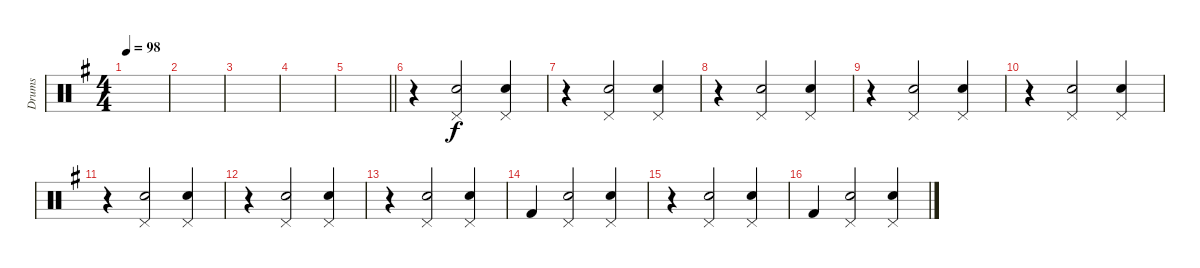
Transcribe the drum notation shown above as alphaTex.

\track ("Drums" "Drums") {instrument percussion}
\staff {score}
\articulation defaults
\ts (4 4)
\tempo 98
\clef neutral
\ks g
|
|
|
|
\barLineRight lightlight
|
r.4 ("Pedal Hi-Hat (hit)" "Hand Clap (hit)").2 ("Pedal Hi-Hat (hit)" "Hand Clap (hit)").4 |
r.4 ("Pedal Hi-Hat (hit)" "Hand Clap (hit)").2 ("Pedal Hi-Hat (hit)" "Hand Clap (hit)").4 |
r.4 ("Pedal Hi-Hat (hit)" "Hand Clap (hit)").2 ("Pedal Hi-Hat (hit)" "Hand Clap (hit)").4 |
r.4 ("Pedal Hi-Hat (hit)" "Hand Clap (hit)").2 ("Pedal Hi-Hat (hit)" "Hand Clap (hit)").4 |
r.4 ("Pedal Hi-Hat (hit)" "Hand Clap (hit)").2 ("Pedal Hi-Hat (hit)" "Hand Clap (hit)").4 |
r.4 ("Pedal Hi-Hat (hit)" "Hand Clap (hit)").2 ("Pedal Hi-Hat (hit)" "Hand Clap (hit)").4 |
r.4 ("Pedal Hi-Hat (hit)" "Hand Clap (hit)").2 ("Pedal Hi-Hat (hit)" "Hand Clap (hit)").4 |
r.4 ("Pedal Hi-Hat (hit)" "Hand Clap (hit)").2 ("Pedal Hi-Hat (hit)" "Hand Clap (hit)").4 |
"Kick (hit) 2".4 ("Pedal Hi-Hat (hit)" "Hand Clap (hit)").2 ("Pedal Hi-Hat (hit)" "Hand Clap (hit)").4 |
r.4 ("Pedal Hi-Hat (hit)" "Hand Clap (hit)").2 ("Pedal Hi-Hat (hit)" "Hand Clap (hit)").4 |
"Kick (hit) 2".4 ("Pedal Hi-Hat (hit)" "Hand Clap (hit)").2 ("Pedal Hi-Hat (hit)" "Hand Clap (hit)").4
